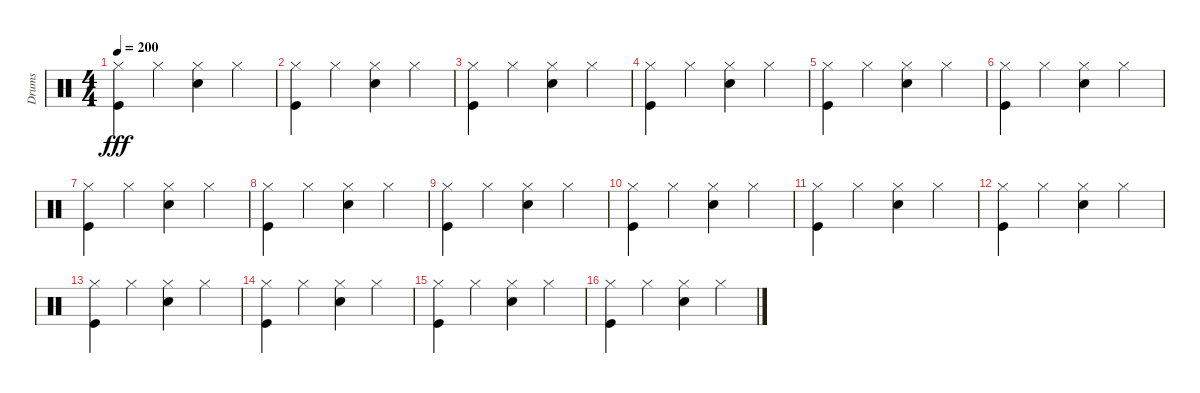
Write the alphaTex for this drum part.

\track ("Drums" "Drums") {instrument percussion}
\staff {score}
\articulation defaults
\ts (4 4)
\tempo 200
\clef neutral
\ks c
("Hi-Hat (closed)" "Kick (hit)").4{dy fff} "Hi-Hat (closed)".4 ("Hi-Hat (closed)" "Snare (hit) 2").4 "Hi-Hat (closed)".4 |
("Hi-Hat (closed)" "Kick (hit)").4 "Hi-Hat (closed)".4 ("Hi-Hat (closed)" "Snare (hit) 2").4 "Hi-Hat (closed)".4 |
("Hi-Hat (closed)" "Kick (hit)").4 "Hi-Hat (closed)".4 ("Hi-Hat (closed)" "Snare (hit) 2").4 "Hi-Hat (closed)".4 |
("Hi-Hat (closed)" "Kick (hit)").4 "Hi-Hat (closed)".4 ("Hi-Hat (closed)" "Snare (hit) 2").4 "Hi-Hat (closed)".4 |
("Hi-Hat (closed)" "Kick (hit)").4 "Hi-Hat (closed)".4 ("Hi-Hat (closed)" "Snare (hit) 2").4 "Hi-Hat (closed)".4 |
("Hi-Hat (closed)" "Kick (hit)").4 "Hi-Hat (closed)".4 ("Hi-Hat (closed)" "Snare (hit) 2").4 "Hi-Hat (closed)".4 |
("Hi-Hat (closed)" "Kick (hit)").4 "Hi-Hat (closed)".4 ("Hi-Hat (closed)" "Snare (hit) 2").4 "Hi-Hat (closed)".4 |
("Hi-Hat (closed)" "Kick (hit)").4 "Hi-Hat (closed)".4 ("Hi-Hat (closed)" "Snare (hit) 2").4 "Hi-Hat (closed)".4 |
("Hi-Hat (closed)" "Kick (hit)").4 "Hi-Hat (closed)".4 ("Hi-Hat (closed)" "Snare (hit) 2").4 "Hi-Hat (closed)".4 |
("Hi-Hat (closed)" "Kick (hit)").4 "Hi-Hat (closed)".4 ("Hi-Hat (closed)" "Snare (hit) 2").4 "Hi-Hat (closed)".4 |
("Hi-Hat (closed)" "Kick (hit)").4 "Hi-Hat (closed)".4 ("Hi-Hat (closed)" "Snare (hit) 2").4 "Hi-Hat (closed)".4 |
("Hi-Hat (closed)" "Kick (hit)").4 "Hi-Hat (closed)".4 ("Hi-Hat (closed)" "Snare (hit) 2").4 "Hi-Hat (closed)".4 |
("Hi-Hat (closed)" "Kick (hit)").4 "Hi-Hat (closed)".4 ("Hi-Hat (closed)" "Snare (hit) 2").4 "Hi-Hat (closed)".4 |
("Hi-Hat (closed)" "Kick (hit)").4 "Hi-Hat (closed)".4 ("Hi-Hat (closed)" "Snare (hit) 2").4 "Hi-Hat (closed)".4 |
("Hi-Hat (closed)" "Kick (hit)").4 "Hi-Hat (closed)".4 ("Hi-Hat (closed)" "Snare (hit) 2").4 "Hi-Hat (closed)".4 |
("Hi-Hat (closed)" "Kick (hit)").4 "Hi-Hat (closed)".4 ("Hi-Hat (closed)" "Snare (hit) 2").4 "Hi-Hat (closed)".4
